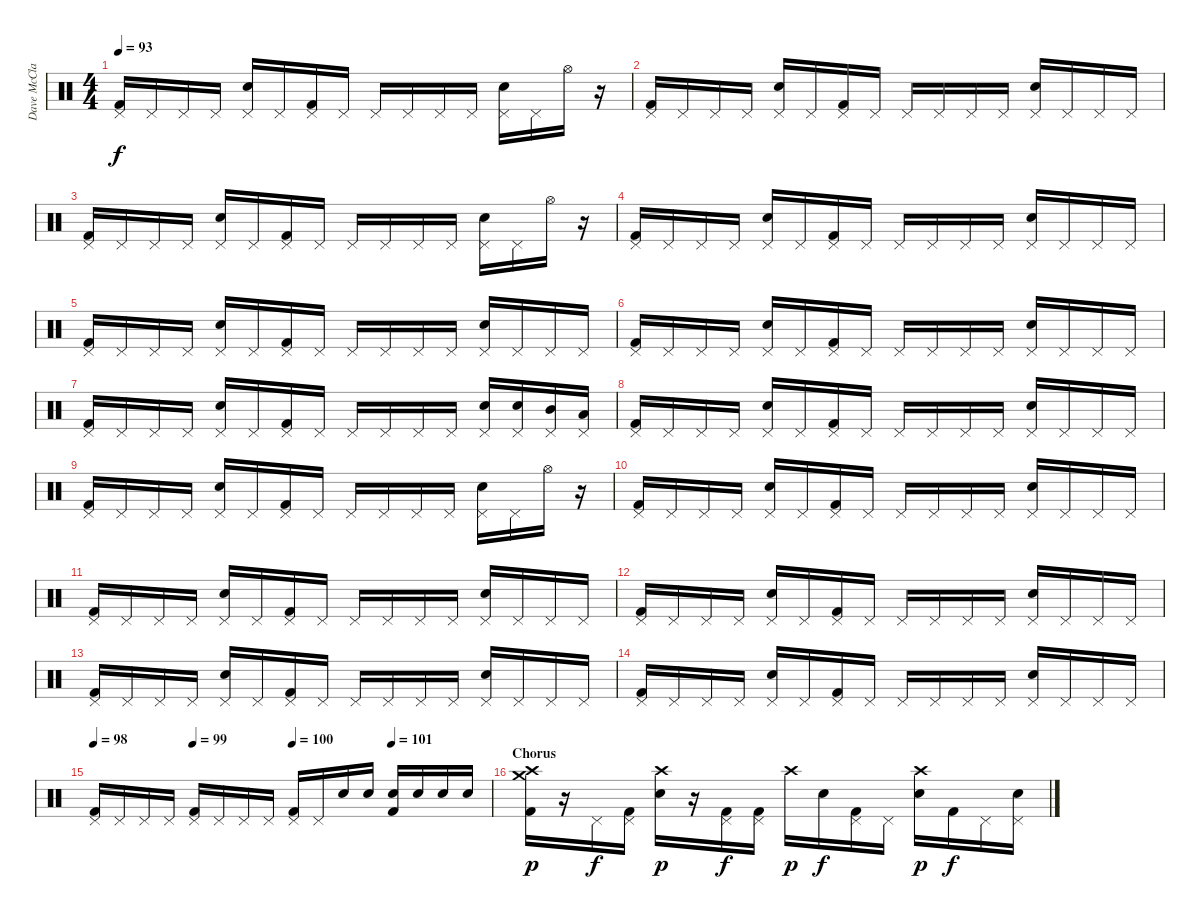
\track ("Dave McClain" "Dave McCla") {instrument percussion}
\staff {score}
\articulation defaults
\ts (4 4)
\tempo 93
\clef neutral
\ks c
("Pedal Hi-Hat (hit)" "Kick (hit) 2").16{dy f} "Pedal Hi-Hat (hit)".16 "Pedal Hi-Hat (hit)".16 "Pedal Hi-Hat (hit)".16 ("Pedal Hi-Hat (hit)" "Electric Snare (hit)").16 "Pedal Hi-Hat (hit)".16 ("Pedal Hi-Hat (hit)" "Kick (hit) 2").16 "Pedal Hi-Hat (hit)".16 "Pedal Hi-Hat (hit)".16 "Pedal Hi-Hat (hit)".16 "Pedal Hi-Hat (hit)".16 "Pedal Hi-Hat (hit)".16 ("Pedal Hi-Hat (hit)" "Electric Snare (hit)").16 "Pedal Hi-Hat (hit)".16 "Hi-Hat (open)".16 r.16 |
("Pedal Hi-Hat (hit)" "Kick (hit) 2").16 "Pedal Hi-Hat (hit)".16 "Pedal Hi-Hat (hit)".16 "Pedal Hi-Hat (hit)".16 ("Pedal Hi-Hat (hit)" "Electric Snare (hit)").16 "Pedal Hi-Hat (hit)".16 ("Pedal Hi-Hat (hit)" "Kick (hit) 2").16 "Pedal Hi-Hat (hit)".16 "Pedal Hi-Hat (hit)".16 "Pedal Hi-Hat (hit)".16 "Pedal Hi-Hat (hit)".16 "Pedal Hi-Hat (hit)".16 ("Pedal Hi-Hat (hit)" "Electric Snare (hit)").16 "Pedal Hi-Hat (hit)".16 "Pedal Hi-Hat (hit)".16 "Pedal Hi-Hat (hit)".16 |
("Pedal Hi-Hat (hit)" "Kick (hit) 2").16 "Pedal Hi-Hat (hit)".16 "Pedal Hi-Hat (hit)".16 "Pedal Hi-Hat (hit)".16 ("Pedal Hi-Hat (hit)" "Electric Snare (hit)").16 "Pedal Hi-Hat (hit)".16 ("Pedal Hi-Hat (hit)" "Kick (hit) 2").16 "Pedal Hi-Hat (hit)".16 "Pedal Hi-Hat (hit)".16 "Pedal Hi-Hat (hit)".16 "Pedal Hi-Hat (hit)".16 "Pedal Hi-Hat (hit)".16 ("Pedal Hi-Hat (hit)" "Electric Snare (hit)").16 "Pedal Hi-Hat (hit)".16 "Hi-Hat (open)".16 r.16 |
("Pedal Hi-Hat (hit)" "Kick (hit) 2").16 "Pedal Hi-Hat (hit)".16 "Pedal Hi-Hat (hit)".16 "Pedal Hi-Hat (hit)".16 ("Pedal Hi-Hat (hit)" "Electric Snare (hit)").16 "Pedal Hi-Hat (hit)".16 ("Pedal Hi-Hat (hit)" "Kick (hit) 2").16 "Pedal Hi-Hat (hit)".16 "Pedal Hi-Hat (hit)".16 "Pedal Hi-Hat (hit)".16 "Pedal Hi-Hat (hit)".16 "Pedal Hi-Hat (hit)".16 ("Pedal Hi-Hat (hit)" "Electric Snare (hit)").16 "Pedal Hi-Hat (hit)".16 "Pedal Hi-Hat (hit)".16 "Pedal Hi-Hat (hit)".16 |
("Pedal Hi-Hat (hit)" "Kick (hit) 2").16 "Pedal Hi-Hat (hit)".16 "Pedal Hi-Hat (hit)".16 "Pedal Hi-Hat (hit)".16 ("Pedal Hi-Hat (hit)" "Electric Snare (hit)").16 "Pedal Hi-Hat (hit)".16 ("Pedal Hi-Hat (hit)" "Kick (hit) 2").16 "Pedal Hi-Hat (hit)".16 "Pedal Hi-Hat (hit)".16 "Pedal Hi-Hat (hit)".16 "Pedal Hi-Hat (hit)".16 "Pedal Hi-Hat (hit)".16 ("Pedal Hi-Hat (hit)" "Electric Snare (hit)").16 "Pedal Hi-Hat (hit)".16 "Pedal Hi-Hat (hit)".16 "Pedal Hi-Hat (hit)".16 |
("Pedal Hi-Hat (hit)" "Kick (hit) 2").16 "Pedal Hi-Hat (hit)".16 "Pedal Hi-Hat (hit)".16 "Pedal Hi-Hat (hit)".16 ("Pedal Hi-Hat (hit)" "Electric Snare (hit)").16 "Pedal Hi-Hat (hit)".16 ("Pedal Hi-Hat (hit)" "Kick (hit) 2").16 "Pedal Hi-Hat (hit)".16 "Pedal Hi-Hat (hit)".16 "Pedal Hi-Hat (hit)".16 "Pedal Hi-Hat (hit)".16 "Pedal Hi-Hat (hit)".16 ("Pedal Hi-Hat (hit)" "Electric Snare (hit)").16 "Pedal Hi-Hat (hit)".16 "Pedal Hi-Hat (hit)".16 "Pedal Hi-Hat (hit)".16 |
("Pedal Hi-Hat (hit)" "Kick (hit) 2").16 "Pedal Hi-Hat (hit)".16 "Pedal Hi-Hat (hit)".16 "Pedal Hi-Hat (hit)".16 ("Pedal Hi-Hat (hit)" "Electric Snare (hit)").16 "Pedal Hi-Hat (hit)".16 ("Pedal Hi-Hat (hit)" "Kick (hit) 2").16 "Pedal Hi-Hat (hit)".16 "Pedal Hi-Hat (hit)".16 "Pedal Hi-Hat (hit)".16 "Pedal Hi-Hat (hit)".16 "Pedal Hi-Hat (hit)".16 ("Pedal Hi-Hat (hit)" "Electric Snare (hit)").16 ("Pedal Hi-Hat (hit)" "Electric Snare (hit)").16 ("Pedal Hi-Hat (hit)" "Mid Tom (hit)").16 ("Pedal Hi-Hat (hit)" "Low Tom (hit)").16 |
("Pedal Hi-Hat (hit)" "Kick (hit) 2").16 "Pedal Hi-Hat (hit)".16 "Pedal Hi-Hat (hit)".16 "Pedal Hi-Hat (hit)".16 ("Pedal Hi-Hat (hit)" "Electric Snare (hit)").16 "Pedal Hi-Hat (hit)".16 ("Pedal Hi-Hat (hit)" "Kick (hit) 2").16 "Pedal Hi-Hat (hit)".16 "Pedal Hi-Hat (hit)".16 "Pedal Hi-Hat (hit)".16 "Pedal Hi-Hat (hit)".16 "Pedal Hi-Hat (hit)".16 ("Pedal Hi-Hat (hit)" "Electric Snare (hit)").16 "Pedal Hi-Hat (hit)".16 "Pedal Hi-Hat (hit)".16 "Pedal Hi-Hat (hit)".16 |
("Pedal Hi-Hat (hit)" "Kick (hit) 2").16 "Pedal Hi-Hat (hit)".16 "Pedal Hi-Hat (hit)".16 "Pedal Hi-Hat (hit)".16 ("Pedal Hi-Hat (hit)" "Electric Snare (hit)").16 "Pedal Hi-Hat (hit)".16 ("Pedal Hi-Hat (hit)" "Kick (hit) 2").16 "Pedal Hi-Hat (hit)".16 "Pedal Hi-Hat (hit)".16 "Pedal Hi-Hat (hit)".16 "Pedal Hi-Hat (hit)".16 "Pedal Hi-Hat (hit)".16 ("Pedal Hi-Hat (hit)" "Electric Snare (hit)").16 "Pedal Hi-Hat (hit)".16 "Hi-Hat (open)".16 r.16 |
("Pedal Hi-Hat (hit)" "Kick (hit) 2").16 "Pedal Hi-Hat (hit)".16 "Pedal Hi-Hat (hit)".16 "Pedal Hi-Hat (hit)".16 ("Pedal Hi-Hat (hit)" "Electric Snare (hit)").16 "Pedal Hi-Hat (hit)".16 ("Pedal Hi-Hat (hit)" "Kick (hit) 2").16 "Pedal Hi-Hat (hit)".16 "Pedal Hi-Hat (hit)".16 "Pedal Hi-Hat (hit)".16 "Pedal Hi-Hat (hit)".16 "Pedal Hi-Hat (hit)".16 ("Pedal Hi-Hat (hit)" "Electric Snare (hit)").16 "Pedal Hi-Hat (hit)".16 "Pedal Hi-Hat (hit)".16 "Pedal Hi-Hat (hit)".16 |
("Pedal Hi-Hat (hit)" "Kick (hit) 2").16 "Pedal Hi-Hat (hit)".16 "Pedal Hi-Hat (hit)".16 "Pedal Hi-Hat (hit)".16 ("Pedal Hi-Hat (hit)" "Electric Snare (hit)").16 "Pedal Hi-Hat (hit)".16 ("Pedal Hi-Hat (hit)" "Kick (hit) 2").16 "Pedal Hi-Hat (hit)".16 "Pedal Hi-Hat (hit)".16 "Pedal Hi-Hat (hit)".16 "Pedal Hi-Hat (hit)".16 "Pedal Hi-Hat (hit)".16 ("Pedal Hi-Hat (hit)" "Electric Snare (hit)").16 "Pedal Hi-Hat (hit)".16 "Pedal Hi-Hat (hit)".16 "Pedal Hi-Hat (hit)".16 |
("Pedal Hi-Hat (hit)" "Kick (hit) 2").16 "Pedal Hi-Hat (hit)".16 "Pedal Hi-Hat (hit)".16 "Pedal Hi-Hat (hit)".16 ("Pedal Hi-Hat (hit)" "Electric Snare (hit)").16 "Pedal Hi-Hat (hit)".16 ("Pedal Hi-Hat (hit)" "Kick (hit) 2").16 "Pedal Hi-Hat (hit)".16 "Pedal Hi-Hat (hit)".16 "Pedal Hi-Hat (hit)".16 "Pedal Hi-Hat (hit)".16 "Pedal Hi-Hat (hit)".16 ("Pedal Hi-Hat (hit)" "Electric Snare (hit)").16 "Pedal Hi-Hat (hit)".16 "Pedal Hi-Hat (hit)".16 "Pedal Hi-Hat (hit)".16 |
("Pedal Hi-Hat (hit)" "Kick (hit) 2").16 "Pedal Hi-Hat (hit)".16 "Pedal Hi-Hat (hit)".16 "Pedal Hi-Hat (hit)".16 ("Pedal Hi-Hat (hit)" "Electric Snare (hit)").16 "Pedal Hi-Hat (hit)".16 ("Pedal Hi-Hat (hit)" "Kick (hit) 2").16 "Pedal Hi-Hat (hit)".16 "Pedal Hi-Hat (hit)".16 "Pedal Hi-Hat (hit)".16 "Pedal Hi-Hat (hit)".16 "Pedal Hi-Hat (hit)".16 ("Pedal Hi-Hat (hit)" "Electric Snare (hit)").16 "Pedal Hi-Hat (hit)".16 "Pedal Hi-Hat (hit)".16 "Pedal Hi-Hat (hit)".16 |
("Pedal Hi-Hat (hit)" "Kick (hit) 2").16 "Pedal Hi-Hat (hit)".16 "Pedal Hi-Hat (hit)".16 "Pedal Hi-Hat (hit)".16 ("Pedal Hi-Hat (hit)" "Electric Snare (hit)").16 "Pedal Hi-Hat (hit)".16 ("Pedal Hi-Hat (hit)" "Kick (hit) 2").16 "Pedal Hi-Hat (hit)".16 "Pedal Hi-Hat (hit)".16 "Pedal Hi-Hat (hit)".16 "Pedal Hi-Hat (hit)".16 "Pedal Hi-Hat (hit)".16 ("Pedal Hi-Hat (hit)" "Electric Snare (hit)").16 "Pedal Hi-Hat (hit)".16 "Pedal Hi-Hat (hit)".16 "Pedal Hi-Hat (hit)".16 |
\tempo 98
\tempo (99 0.25)
\tempo (100 0.5)
\tempo (101 0.75)
("Pedal Hi-Hat (hit)" "Kick (hit) 2").16 "Pedal Hi-Hat (hit)".16 "Pedal Hi-Hat (hit)".16 "Pedal Hi-Hat (hit)".16 ("Pedal Hi-Hat (hit)" "Kick (hit) 2").16 "Pedal Hi-Hat (hit)".16 "Pedal Hi-Hat (hit)".16 "Pedal Hi-Hat (hit)".16 ("Pedal Hi-Hat (hit)" "Kick (hit) 2").16 "Pedal Hi-Hat (hit)".16 "Electric Snare (hit)".16 "Electric Snare (hit)".16 ("Electric Snare (hit)" "Kick (hit) 2").16 "Electric Snare (hit)".16 "Electric Snare (hit)".16 "Electric Snare (hit)".16 |
\section ("" "Chorus")
("Crash medium (hit)" "Crash high (hit)" "Kick (hit) 2").16{dy p} r.16 "Pedal Hi-Hat (hit)".16{dy f} ("Pedal Hi-Hat (hit)" "Kick (hit) 2").16 ("Crash high (hit)" "Electric Snare (hit)").16{dy p} r.16 ("Pedal Hi-Hat (hit)" "Kick (hit) 2").16{dy f} ("Pedal Hi-Hat (hit)" "Kick (hit) 2").16 "Crash high (hit)".16{dy p} "Electric Snare (hit)".16{dy f} ("Pedal Hi-Hat (hit)" "Kick (hit) 2").16 "Pedal Hi-Hat (hit)".16 ("Crash high (hit)" "Electric Snare (hit)").16{dy p} "Kick (hit) 2".16{dy f} "Pedal Hi-Hat (hit)".16 ("Pedal Hi-Hat (hit)" "Electric Snare (hit)").16
